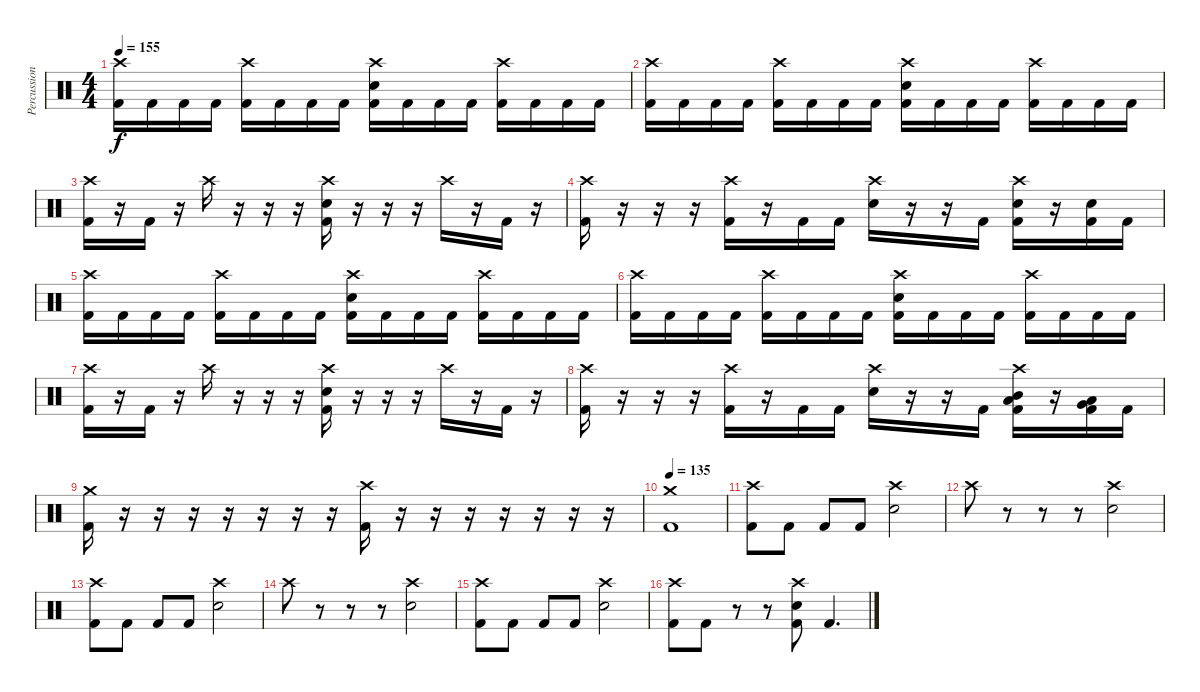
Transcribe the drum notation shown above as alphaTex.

\track ("Percussion" "Percussion") {instrument percussion}
\staff {score}
\articulation defaults
\ts (4 4)
\tempo 155
\clef neutral
\ks c
("Crash high (hit)" "Kick (hit) 2").16{dy f} "Kick (hit) 2".16 "Kick (hit) 2".16 "Kick (hit) 2".16 ("Crash high (hit)" "Kick (hit) 2").16 "Kick (hit) 2".16 "Kick (hit) 2".16 "Kick (hit) 2".16 ("Crash high (hit)" "Snare (hit) 2" "Kick (hit) 2").16 "Kick (hit) 2".16 "Kick (hit) 2".16 "Kick (hit) 2".16 ("Crash high (hit)" "Kick (hit) 2").16 "Kick (hit) 2".16 "Kick (hit) 2".16 "Kick (hit) 2".16 |
("Crash high (hit)" "Kick (hit) 2").16 "Kick (hit) 2".16 "Kick (hit) 2".16 "Kick (hit) 2".16 ("Crash high (hit)" "Kick (hit) 2").16 "Kick (hit) 2".16 "Kick (hit) 2".16 "Kick (hit) 2".16 ("Crash high (hit)" "Snare (hit) 2" "Kick (hit) 2").16 "Kick (hit) 2".16 "Kick (hit) 2".16 "Kick (hit) 2".16 ("Crash high (hit)" "Kick (hit) 2").16 "Kick (hit) 2".16 "Kick (hit) 2".16 "Kick (hit) 2".16 |
("Crash high (hit)" "Kick (hit) 2").16 r.16 "Kick (hit) 2".16 r.16 "Crash high (hit)".16 r.16 r.16 r.16 ("Crash high (hit)" "Snare (hit) 2" "Kick (hit) 2").16 r.16 r.16 r.16 "Crash high (hit)".16 r.16 "Kick (hit) 2".16 r.16 |
("Crash high (hit)" "Kick (hit) 2").16 r.16 r.16 r.16 ("Crash high (hit)" "Kick (hit) 2").16 r.16 "Kick (hit) 2".16 "Kick (hit) 2".16 ("Crash high (hit)" "Snare (hit) 2").16 r.16 r.16 "Kick (hit) 2".16 ("Crash high (hit)" "Snare (hit) 2" "Kick (hit) 2").16 r.16 ("Snare (hit) 2" "Kick (hit) 2").16 "Kick (hit) 2".16 |
("Crash high (hit)" "Kick (hit) 2").16 "Kick (hit) 2".16 "Kick (hit) 2".16 "Kick (hit) 2".16 ("Crash high (hit)" "Kick (hit) 2").16 "Kick (hit) 2".16 "Kick (hit) 2".16 "Kick (hit) 2".16 ("Crash high (hit)" "Snare (hit) 2" "Kick (hit) 2").16 "Kick (hit) 2".16 "Kick (hit) 2".16 "Kick (hit) 2".16 ("Crash high (hit)" "Kick (hit) 2").16 "Kick (hit) 2".16 "Kick (hit) 2".16 "Kick (hit) 2".16 |
("Crash high (hit)" "Kick (hit) 2").16 "Kick (hit) 2".16 "Kick (hit) 2".16 "Kick (hit) 2".16 ("Crash high (hit)" "Kick (hit) 2").16 "Kick (hit) 2".16 "Kick (hit) 2".16 "Kick (hit) 2".16 ("Crash high (hit)" "Snare (hit) 2" "Kick (hit) 2").16 "Kick (hit) 2".16 "Kick (hit) 2".16 "Kick (hit) 2".16 ("Crash high (hit)" "Kick (hit) 2").16 "Kick (hit) 2".16 "Kick (hit) 2".16 "Kick (hit) 2".16 |
("Crash high (hit)" "Kick (hit) 2").16 r.16 "Kick (hit) 2".16 r.16 "Crash high (hit)".16 r.16 r.16 r.16 ("Crash high (hit)" "Snare (hit) 2" "Kick (hit) 2").16 r.16 r.16 r.16 "Crash high (hit)".16 r.16 "Kick (hit) 2".16 r.16 |
("Crash high (hit)" "Kick (hit) 2").16 r.16 r.16 r.16 ("Crash high (hit)" "Kick (hit) 2").16 r.16 "Kick (hit) 2".16 "Kick (hit) 2".16 ("Crash high (hit)" "Snare (hit) 2").16 r.16 r.16 "Kick (hit) 2".16 ("Crash high (hit)" "Mid Tom (hit)" "Low Tom (hit)" "Kick (hit) 2").16 r.16 ("Low Floor Tom (hit)" "Very Low Tom (hit)" "Kick (hit) 2").16 "Kick (hit) 2".16 |
("Crash medium (hit)" "Kick (hit) 2").16 r.16 r.16 r.16 r.16 r.16 r.16 r.16 ("Crash high (hit)" "Kick (hit) 2").16 r.16 r.16 r.16 r.16 r.16 r.16 r.16 |
\tempo 135
("Crash medium (hit)" "Kick (hit) 2").1 |
("Crash high (hit)" "Kick (hit) 2").8 "Kick (hit) 2".8 "Kick (hit) 2".8 "Kick (hit) 2".8 ("Crash high (hit)" "Snare (hit) 2").2 |
"Crash high (hit)".8 r.8 r.8 r.8 ("Crash high (hit)" "Snare (hit) 2").2 |
("Crash high (hit)" "Kick (hit) 2").8 "Kick (hit) 2".8 "Kick (hit) 2".8 "Kick (hit) 2".8 ("Crash high (hit)" "Snare (hit) 2").2 |
"Crash high (hit)".8 r.8 r.8 r.8 ("Crash high (hit)" "Snare (hit) 2").2 |
("Crash high (hit)" "Kick (hit) 2").8 "Kick (hit) 2".8 "Kick (hit) 2".8 "Kick (hit) 2".8 ("Crash high (hit)" "Snare (hit) 2").2 |
("Crash high (hit)" "Kick (hit) 2").8 "Kick (hit) 2".8 r.8 r.8 ("Crash high (hit)" "Snare (hit) 2" "Kick (hit) 2").8 "Kick (hit) 2".4{d}
